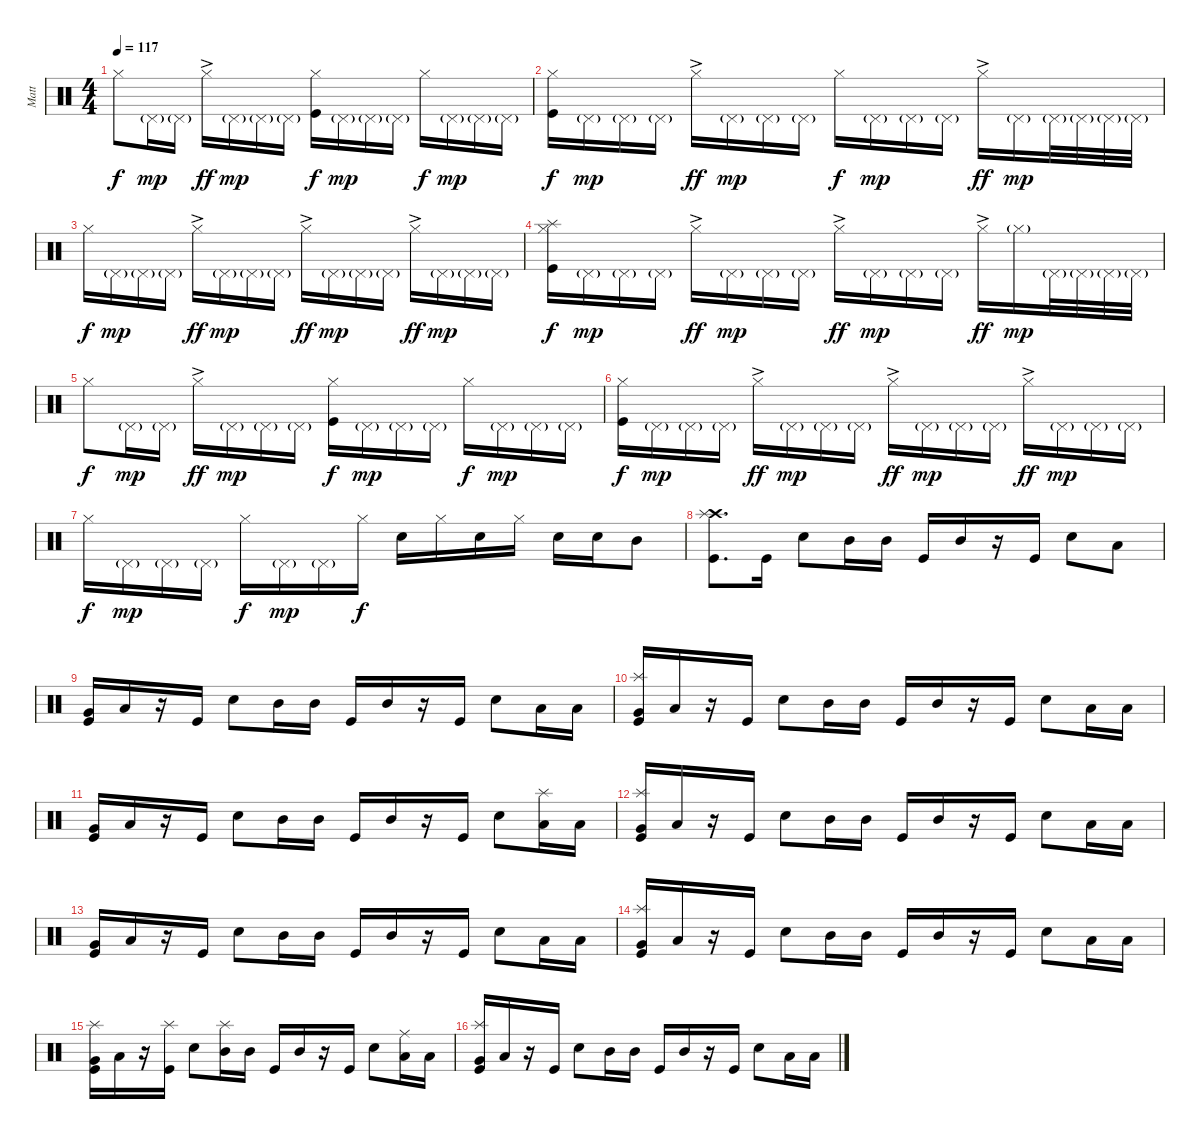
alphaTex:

\track ("Matt" "Matt") {instrument percussion}
\staff {score}
\articulation defaults
\ts (4 4)
\tempo 117
\clef neutral
\ks c "Hi-Hat (closed)".8{dy f} "Pedal Hi-Hat (hit)"{g}.16{dy mp} "Pedal Hi-Hat (hit)"{g}.16 "Hi-Hat (closed)"{ac}.16{dy ff} "Pedal Hi-Hat (hit)"{g}.16{dy mp} "Pedal Hi-Hat (hit)"{g}.16 "Pedal Hi-Hat (hit)"{g}.16
("Kick (hit)" "Hi-Hat (closed)").16{dy f} "Pedal Hi-Hat (hit)"{g}.16{dy mp} "Pedal Hi-Hat (hit)"{g}.16 "Pedal Hi-Hat (hit)"{g}.16 "Hi-Hat (closed)".16{dy f} "Pedal Hi-Hat (hit)"{g}.16{dy mp} "Pedal Hi-Hat (hit)"{g}.16 "Pedal Hi-Hat (hit)"{g}.16 |
("Kick (hit)" "Hi-Hat (closed)").16{dy f} "Pedal Hi-Hat (hit)"{g}.16{dy mp} "Pedal Hi-Hat (hit)"{g}.16 "Pedal Hi-Hat (hit)"{g}.16 "Hi-Hat (closed)"{ac}.16{dy ff} "Pedal Hi-Hat (hit)"{g}.16{dy mp} "Pedal Hi-Hat (hit)"{g}.16 "Pedal Hi-Hat (hit)"{g}.16 "Hi-Hat (closed)".16{dy f} "Pedal Hi-Hat (hit)"{g}.16{dy mp} "Pedal Hi-Hat (hit)"{g}.16 "Pedal Hi-Hat (hit)"{g}.16 "Hi-Hat (closed)"{ac}.16{dy ff} "Pedal Hi-Hat (hit)"{g}.16{dy mp} "Pedal Hi-Hat (hit)"{g}.32 "Pedal Hi-Hat (hit)"{g}.32 "Pedal Hi-Hat (hit)"{g}.32 "Pedal Hi-Hat (hit)"{g}.32 |
"Hi-Hat (closed)".16{dy f} "Pedal Hi-Hat (hit)"{g}.16{dy mp} "Pedal Hi-Hat (hit)"{g}.16 "Pedal Hi-Hat (hit)"{g}.16 "Hi-Hat (closed)"{ac}.16{dy ff} "Pedal Hi-Hat (hit)"{g}.16{dy mp} "Pedal Hi-Hat (hit)"{g}.16 "Pedal Hi-Hat (hit)"{g}.16 "Hi-Hat (closed)"{ac}.16{dy ff} "Pedal Hi-Hat (hit)"{g}.16{dy mp} "Pedal Hi-Hat (hit)"{g}.16 "Pedal Hi-Hat (hit)"{g}.16 "Hi-Hat (closed)"{ac}.16{dy ff} "Pedal Hi-Hat (hit)"{g}.16{dy mp} "Pedal Hi-Hat (hit)"{g}.16 "Pedal Hi-Hat (hit)"{g}.16 |
("Splash (hit)" "Kick (hit)" "Hi-Hat (closed)").16{dy f} "Pedal Hi-Hat (hit)"{g}.16{dy mp} "Pedal Hi-Hat (hit)"{g}.16 "Pedal Hi-Hat (hit)"{g}.16 "Hi-Hat (closed)"{ac}.16{dy ff} "Pedal Hi-Hat (hit)"{g}.16{dy mp} "Pedal Hi-Hat (hit)"{g}.16 "Pedal Hi-Hat (hit)"{g}.16 "Hi-Hat (closed)"{ac}.16{dy ff} "Pedal Hi-Hat (hit)"{g}.16{dy mp} "Pedal Hi-Hat (hit)"{g}.16 "Pedal Hi-Hat (hit)"{g}.16 "Hi-Hat (closed)"{ac}.16{dy ff} "Hi-Hat (closed)"{g}.16{dy mp} "Pedal Hi-Hat (hit)"{g}.32 "Pedal Hi-Hat (hit)"{g}.32 "Pedal Hi-Hat (hit)"{g}.32 "Pedal Hi-Hat (hit)"{g}.32 |
"Hi-Hat (closed)".8{dy f} "Pedal Hi-Hat (hit)"{g}.16{dy mp} "Pedal Hi-Hat (hit)"{g}.16 "Hi-Hat (closed)"{ac}.16{dy ff} "Pedal Hi-Hat (hit)"{g}.16{dy mp} "Pedal Hi-Hat (hit)"{g}.16 "Pedal Hi-Hat (hit)"{g}.16 ("Kick (hit)" "Hi-Hat (closed)").16{dy f} "Pedal Hi-Hat (hit)"{g}.16{dy mp} "Pedal Hi-Hat (hit)"{g}.16 "Pedal Hi-Hat (hit)"{g}.16 "Hi-Hat (closed)".16{dy f} "Pedal Hi-Hat (hit)"{g}.16{dy mp} "Pedal Hi-Hat (hit)"{g}.16 "Pedal Hi-Hat (hit)"{g}.16 |
("Kick (hit)" "Hi-Hat (closed)").16{dy f} "Pedal Hi-Hat (hit)"{g}.16{dy mp} "Pedal Hi-Hat (hit)"{g}.16 "Pedal Hi-Hat (hit)"{g}.16 "Hi-Hat (closed)"{ac}.16{dy ff} "Pedal Hi-Hat (hit)"{g}.16{dy mp} "Pedal Hi-Hat (hit)"{g}.16 "Pedal Hi-Hat (hit)"{g}.16 "Hi-Hat (closed)"{ac}.16{dy ff} "Pedal Hi-Hat (hit)"{g}.16{dy mp} "Pedal Hi-Hat (hit)"{g}.16 "Pedal Hi-Hat (hit)"{g}.16 "Hi-Hat (closed)"{ac}.16{dy ff} "Pedal Hi-Hat (hit)"{g}.16{dy mp} "Pedal Hi-Hat (hit)"{g}.16 "Pedal Hi-Hat (hit)"{g}.16 |
"Hi-Hat (closed)".16{dy f} "Pedal Hi-Hat (hit)"{g}.16{dy mp} "Pedal Hi-Hat (hit)"{g}.16 "Pedal Hi-Hat (hit)"{g}.16 "Hi-Hat (closed)".16{dy f} "Pedal Hi-Hat (hit)"{g}.16{dy mp} "Pedal Hi-Hat (hit)"{g}.16 "Hi-Hat (closed)".16{dy f} "Snare (hit) 2".16 "Hi-Hat (closed)".16 "Snare (hit) 2".16 "Hi-Hat (closed)".16 "Snare (hit) 2".16 "Snare (hit) 2".16 "Mid Tom (hit)".8 |
("Crash high (hit)" "Splash (hit)" "Kick (hit)").8{d} "Kick (hit)".16 "Snare (hit) 2".8 "Mid Tom (hit)".16 "Mid Tom (hit)".16 "Kick (hit)".16 "Mid Tom (hit)".16 r.16 "Kick (hit)".16 "Snare (hit) 2".8 "Low Tom (hit)".8 |
("Very Low Tom (hit)" "Kick (hit)").16 "Low Tom (hit)".16 r.16 "Kick (hit)".16 "Snare (hit) 2".8 "Mid Tom (hit)".16 "Mid Tom (hit)".16 "Kick (hit)".16 "Mid Tom (hit)".16 r.16 "Kick (hit)".16 "Snare (hit) 2".8 "Low Tom (hit)".16 "Low Tom (hit)".16 |
("Splash (hit)" "Very Low Tom (hit)" "Kick (hit)").16 "Low Tom (hit)".16 r.16 "Kick (hit)".16 "Snare (hit) 2".8 "Mid Tom (hit)".16 "Mid Tom (hit)".16 "Kick (hit)".16 "Mid Tom (hit)".16 r.16 "Kick (hit)".16 "Snare (hit) 2".8 "Low Tom (hit)".16 "Low Tom (hit)".16 |
("Very Low Tom (hit)" "Kick (hit)").16 "Low Tom (hit)".16 r.16 "Kick (hit)".16 "Snare (hit) 2".8 "Mid Tom (hit)".16 "Mid Tom (hit)".16 "Kick (hit)".16 "Mid Tom (hit)".16 r.16 "Kick (hit)".16 "Snare (hit) 2".8 ("Splash (hit)" "Low Tom (hit)").16 "Low Tom (hit)".16 |
("Splash (hit)" "Very Low Tom (hit)" "Kick (hit)").16 "Low Tom (hit)".16 r.16 "Kick (hit)".16 "Snare (hit) 2".8 "Mid Tom (hit)".16 "Mid Tom (hit)".16 "Kick (hit)".16 "Mid Tom (hit)".16 r.16 "Kick (hit)".16 "Snare (hit) 2".8 "Low Tom (hit)".16 "Low Tom (hit)".16 |
("Very Low Tom (hit)" "Kick (hit)").16 "Low Tom (hit)".16 r.16 "Kick (hit)".16 "Snare (hit) 2".8 "Mid Tom (hit)".16 "Mid Tom (hit)".16 "Kick (hit)".16 "Mid Tom (hit)".16 r.16 "Kick (hit)".16 "Snare (hit) 2".8 "Low Tom (hit)".16 "Low Tom (hit)".16 |
("Splash (hit)" "Very Low Tom (hit)" "Kick (hit)").16 "Low Tom (hit)".16 r.16 "Kick (hit)".16 "Snare (hit) 2".8 "Mid Tom (hit)".16 "Mid Tom (hit)".16 "Kick (hit)".16 "Mid Tom (hit)".16 r.16 "Kick (hit)".16 "Snare (hit) 2".8 "Low Tom (hit)".16 "Low Tom (hit)".16 |
("Splash (hit)" "Very Low Tom (hit)" "Kick (hit)").16 "Low Tom (hit)".16 r.16 ("Splash (hit)" "Kick (hit)").16 "Snare (hit) 2".8 ("Splash (hit)" "Mid Tom (hit)").16 "Mid Tom (hit)".16 "Kick (hit)".16 "Mid Tom (hit)".16 r.16 "Kick (hit)".16 "Snare (hit) 2".8 ("Ride (middle)" "Low Tom (hit)").16 "Low Tom (hit)".16 |
("Splash (hit)" "Very Low Tom (hit)" "Kick (hit)").16 "Low Tom (hit)".16 r.16 "Kick (hit)".16 "Snare (hit) 2".8 "Mid Tom (hit)".16 "Mid Tom (hit)".16 "Kick (hit)".16 "Mid Tom (hit)".16 r.16 "Kick (hit)".16 "Snare (hit) 2".8 "Low Tom (hit)".16 "Low Tom (hit)".16
